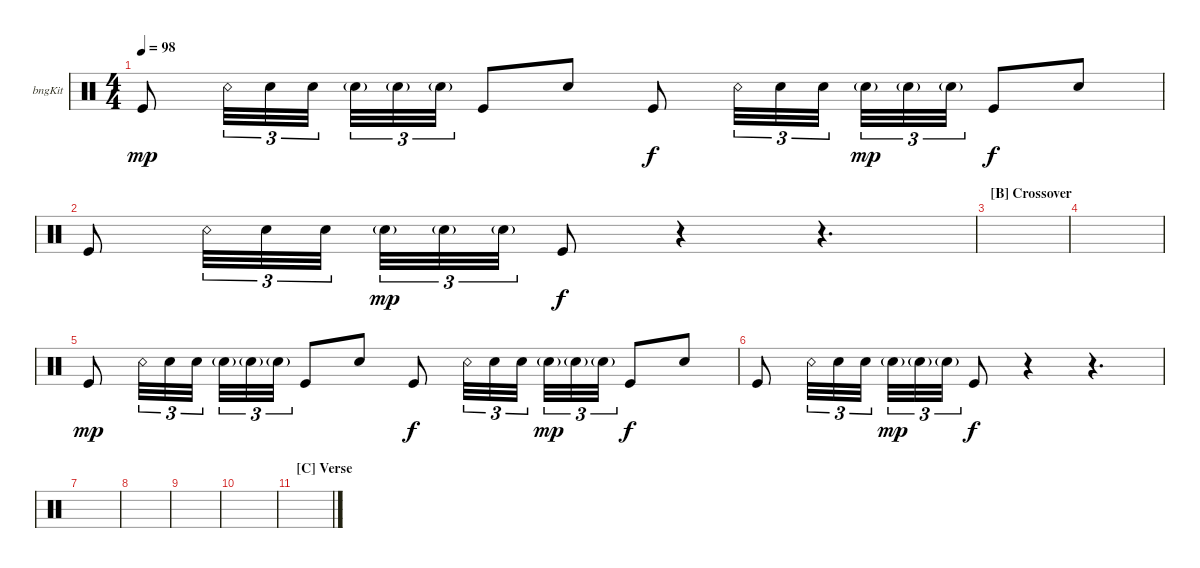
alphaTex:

\defaultSystemsLayout 4
\bracketExtendMode groupsimilarinstruments
\firstSystemTrackNameOrientation horizontal
\otherSystemsTrackNameOrientation horizontal
\track ("Bongos" "bngKit") {instrument percussion}
\staff {score}
\articulation defaults
\ts (4 4)
\tempo 98
\clef neutral
\ks c "Kick (hit)".8{dy mp} "Snare (rim shot)".32{tu (3 2)} "Snare (hit) 2".32{tu (3 2)} "Snare (hit) 2".32{tu (3 2)} "Snare (hit) 2"{g}.32{tu (3 2)} "Snare (hit) 2"{g}.32{tu (3 2)} "Snare (hit) 2"{g}.32{tu (3 2)} "Kick (hit)".8 "Snare (hit) 2".8 "Kick (hit)".8{dy f} "Snare (rim shot)".32{tu (3 2)} "Snare (hit) 2".32{tu (3 2)} "Snare (hit) 2".32{tu (3 2)} "Snare (hit) 2"{g}.32{tu (3 2) dy mp} "Snare (hit) 2"{g}.32{tu (3 2)} "Snare (hit) 2"{g}.32{tu (3 2)} "Kick (hit)".8{dy f} "Snare (hit) 2".8
|
"Kick (hit)".8 "Snare (rim shot)".32{tu (3 2)} "Snare (hit) 2".32{tu (3 2)} "Snare (hit) 2".32{tu (3 2)} "Snare (hit) 2"{g}.32{tu (3 2) dy mp} "Snare (hit) 2"{g}.32{tu (3 2)} "Snare (hit) 2"{g}.32{tu (3 2)} "Kick (hit)".8{dy f} r.4 r.4{d} |
\section ("B" "Crossover")
|
|
"Kick (hit)".8{dy mp} "Snare (rim shot)".32{tu (3 2)} "Snare (hit) 2".32{tu (3 2)} "Snare (hit) 2".32{tu (3 2)} "Snare (hit) 2"{g}.32{tu (3 2)} "Snare (hit) 2"{g}.32{tu (3 2)} "Snare (hit) 2"{g}.32{tu (3 2)} "Kick (hit)".8 "Snare (hit) 2".8 "Kick (hit)".8{dy f} "Snare (rim shot)".32{tu (3 2)} "Snare (hit) 2".32{tu (3 2)} "Snare (hit) 2".32{tu (3 2)} "Snare (hit) 2"{g}.32{tu (3 2) dy mp} "Snare (hit) 2"{g}.32{tu (3 2)} "Snare (hit) 2"{g}.32{tu (3 2)} "Kick (hit)".8{dy f} "Snare (hit) 2".8 |
"Kick (hit)".8 "Snare (rim shot)".32{tu (3 2)} "Snare (hit) 2".32{tu (3 2)} "Snare (hit) 2".32{tu (3 2)} "Snare (hit) 2"{g}.32{tu (3 2) dy mp} "Snare (hit) 2"{g}.32{tu (3 2)} "Snare (hit) 2"{g}.32{tu (3 2)} "Kick (hit)".8{dy f} r.4 r.4{d} |
|
|
|
|
\section ("C" "Verse")
